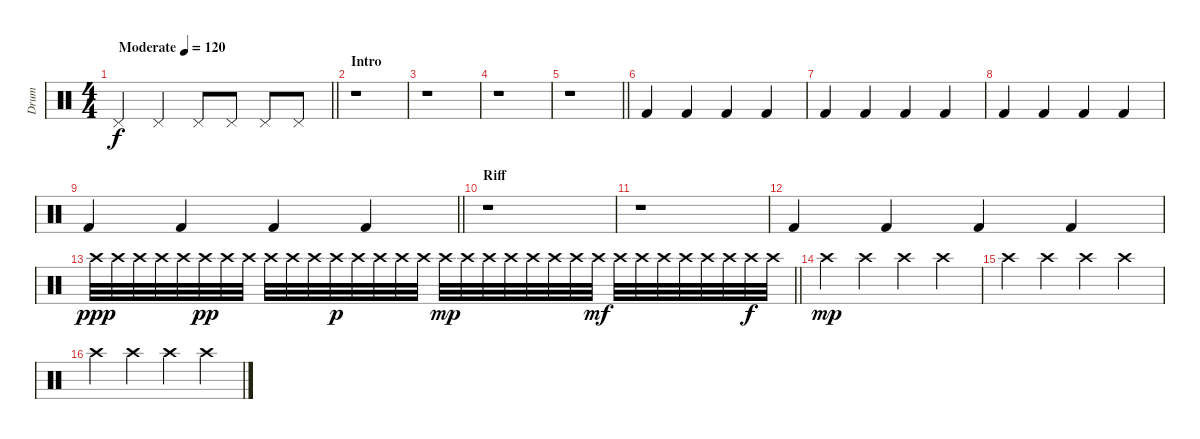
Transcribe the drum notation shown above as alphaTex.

\track ("Drum" "Drum") {instrument percussion}
\staff {score}
\articulation defaults
\ts (4 4)
\tempo (120 "Moderate")
\clef neutral
\barLineRight lightlight
\ks c "Pedal Hi-Hat (hit)".4{dy f} "Pedal Hi-Hat (hit)".4 "Pedal Hi-Hat (hit)".8 "Pedal Hi-Hat (hit)".8 "Pedal Hi-Hat (hit)".8 "Pedal Hi-Hat (hit)".8
|
\section ("" "Intro")
r.1 |
r.1 |
r.1 |
\barLineRight lightlight
r.1 |
"Kick (hit) 2".4 "Kick (hit) 2".4 "Kick (hit) 2".4 "Kick (hit) 2".4 |
"Kick (hit) 2".4 "Kick (hit) 2".4 "Kick (hit) 2".4 "Kick (hit) 2".4 |
"Kick (hit) 2".4 "Kick (hit) 2".4 "Kick (hit) 2".4 "Kick (hit) 2".4 |
\barLineRight lightlight "Kick (hit) 2".4 "Kick (hit) 2".4 "Kick (hit) 2".4 "Kick (hit) 2".4
|
\section ("" "Riff")
r.1 |
r.1 |
"Kick (hit) 2".4 "Kick (hit) 2".4 "Kick (hit) 2".4 "Kick (hit) 2".4 |
\barLineRight lightlight "Crash high (hit)".32{dy ppp} "Crash high (hit)".32 "Crash high (hit)".32 "Crash high (hit)".32 "Crash high (hit)".32 "Crash high (hit)".32{dy pp} "Crash high (hit)".32 "Crash high (hit)".32 "Crash high (hit)".32 "Crash high (hit)".32 "Crash high (hit)".32 "Crash high (hit)".32{dy p} "Crash high (hit)".32 "Crash high (hit)".32 "Crash high (hit)".32 "Crash high (hit)".32 "Crash high (hit)".32{dy mp} "Crash high (hit)".32 "Crash high (hit)".32 "Crash high (hit)".32 "Crash high (hit)".32 "Crash high (hit)".32 "Crash high (hit)".32 "Crash high (hit)".32{dy mf} "Crash high (hit)".32 "Crash high (hit)".32 "Crash high (hit)".32 "Crash high (hit)".32 "Crash high (hit)".32 "Crash high (hit)".32 "Crash high (hit)".32{dy f} "Crash high (hit)".32
|
"Crash high (hit)".4{dy mp} "Crash high (hit)".4 "Crash high (hit)".4 "Crash high (hit)".4 |
"Crash high (hit)".4 "Crash high (hit)".4 "Crash high (hit)".4 "Crash high (hit)".4 |
"Crash high (hit)".4 "Crash high (hit)".4 "Crash high (hit)".4 "Crash high (hit)".4
